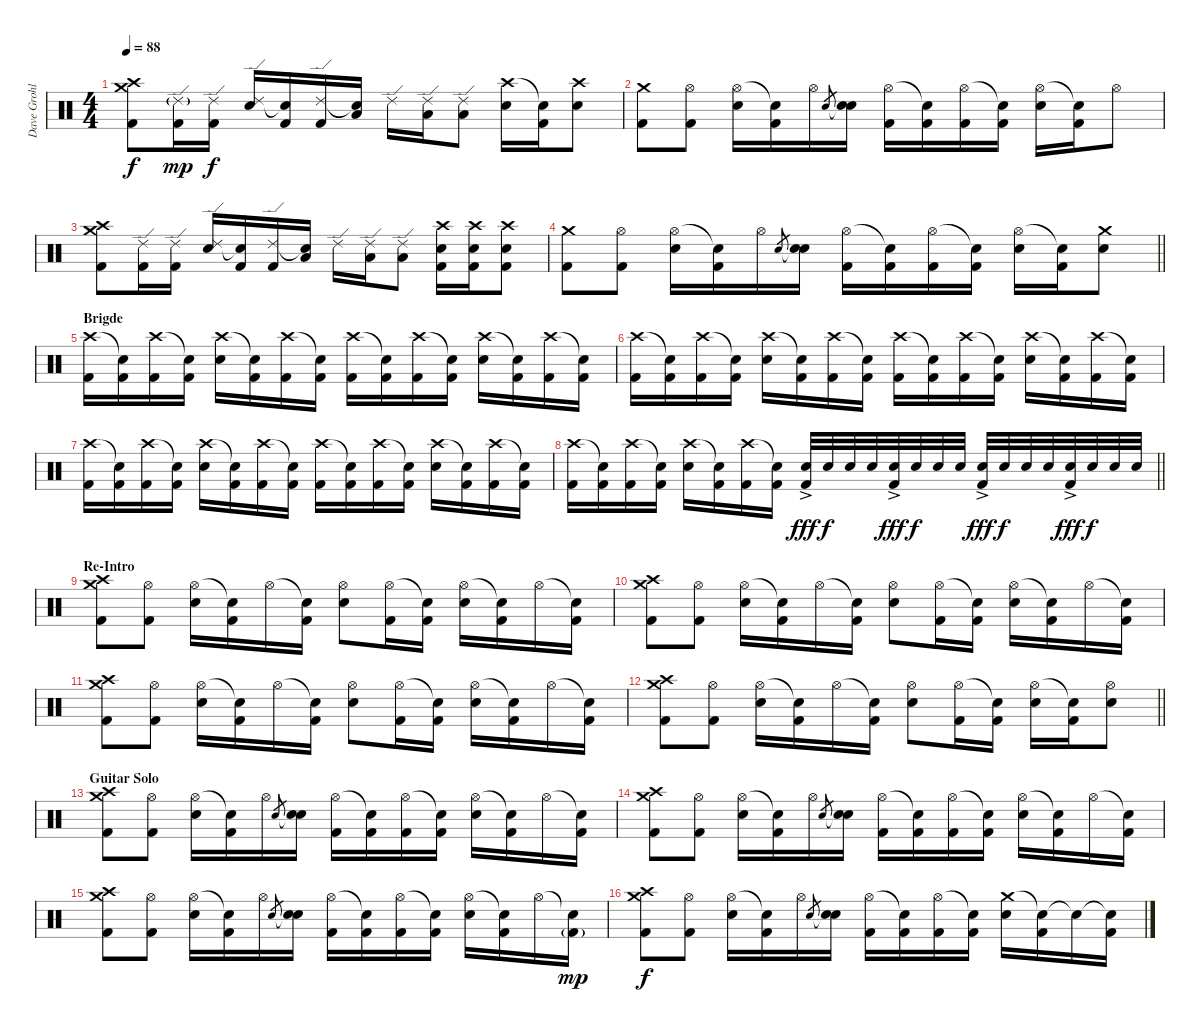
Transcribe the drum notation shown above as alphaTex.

\track ("Dave Grohl - Drums" "Dave Grohl") {instrument percussion}
\staff {score}
\articulation defaults
\ts (4 4)
\tempo 88
\clef neutral
\ks c
("Crash high (hit)" "Crash medium (hit)" "Kick (hit) 2").8{dy f} ("Ride (edge) 2"{g} "Kick (hit) 2").16{dy mp} ("Ride (edge) 2" "Kick (hit) 2").16{dy f} ("Ride (edge) 2" "Electric Snare (hit)").16 ("Snare (hit)"{t} "Kick (hit) 2").16 ("Ride (edge) 2" "Kick (hit) 2").16 ("Snare (hit)"{t} "Low Tom (hit)").16 "Ride (edge) 2".16 ("Ride (edge) 2" "Low Floor Tom (hit)").16 ("Ride (edge) 2" "Low Floor Tom (hit)").8 ("Crash high (hit)" "Electric Snare (hit)").16 ("Snare (hit)"{t} "Kick (hit) 2").16 ("Crash high (hit)" "Electric Snare (hit)").8 |
("Crash medium (hit)" "Kick (hit) 2").8 ("Hi-Hat (open)" "Kick (hit) 2").8 ("Hi-Hat (open)" "Electric Snare (hit)").16 ("Snare (hit)"{t} "Kick (hit) 2").16 "Hi-Hat (open)".16 "Electric Snare (hit)".8{gr} ("Snare (hit)"{t} "Electric Snare (hit)").16 ("Hi-Hat (open)" "Kick (hit) 2").16 ("Snare (hit)"{t} "Kick (hit) 2").16 ("Hi-Hat (open)" "Kick (hit) 2").16 ("Snare (hit)"{t} "Kick (hit) 2").16 ("Hi-Hat (open)" "Electric Snare (hit)").16 ("Snare (hit)"{t} "Kick (hit) 2").16 "Hi-Hat (open)".8 |
("Crash high (hit)" "Crash medium (hit)" "Kick (hit) 2").8 ("Ride (edge) 2" "Kick (hit) 2").16 ("Ride (edge) 2" "Kick (hit) 2").16 ("Ride (edge) 2" "Electric Snare (hit)").16 ("Snare (hit)"{t} "Kick (hit) 2").16 ("Ride (edge) 2" "Kick (hit) 2").16 ("Snare (hit)"{t} "Low Tom (hit)").16 "Ride (edge) 2".16 ("Ride (edge) 2" "Low Floor Tom (hit)").16 ("Ride (edge) 2" "Low Floor Tom (hit)").8 ("Crash high (hit)" "Electric Snare (hit)" "Kick (hit) 2").16 ("Crash high (hit)" "Electric Snare (hit)" "Kick (hit) 2").16 ("Crash high (hit)" "Electric Snare (hit)" "Kick (hit) 2").8 |
\barLineRight lightlight
("Crash medium (hit)" "Kick (hit) 2").8 ("Hi-Hat (open)" "Kick (hit) 2").8 ("Hi-Hat (open)" "Electric Snare (hit)").16 ("Snare (hit)"{t} "Kick (hit) 2").16 "Hi-Hat (open)".16 "Electric Snare (hit)".8{gr} ("Snare (hit)"{t} "Electric Snare (hit)").16 ("Hi-Hat (open)" "Kick (hit) 2").16 ("Snare (hit)"{t} "Kick (hit) 2").16 ("Hi-Hat (open)" "Kick (hit) 2").16 ("Snare (hit)"{t} "Kick (hit) 2").16 ("Hi-Hat (open)" "Electric Snare (hit)").16 ("Snare (hit)"{t} "Kick (hit) 2").16 ("Crash medium (hit)" "Electric Snare (hit)").8 |
\section ("" "Brigde")
("Crash high (hit)" "Kick (hit) 2").16 ("Snare (hit)"{t} "Kick (hit) 2").16 ("Crash high (hit)" "Kick (hit) 2").16 ("Snare (hit)"{t} "Kick (hit) 2").16 ("Crash high (hit)" "Electric Snare (hit)").16 ("Snare (hit)"{t} "Kick (hit) 2").16 ("Crash high (hit)" "Kick (hit) 2").16 ("Snare (hit)"{t} "Kick (hit) 2").16 ("Crash high (hit)" "Kick (hit) 2").16 ("Snare (hit)"{t} "Kick (hit) 2").16 ("Crash high (hit)" "Kick (hit) 2").16 ("Snare (hit)"{t} "Kick (hit) 2").16 ("Crash high (hit)" "Electric Snare (hit)").16 ("Snare (hit)"{t} "Kick (hit) 2").16 ("Crash high (hit)" "Kick (hit) 2").16 ("Snare (hit)"{t} "Kick (hit) 2").16 |
("Crash high (hit)" "Kick (hit) 2").16 ("Snare (hit)"{t} "Kick (hit) 2").16 ("Crash high (hit)" "Kick (hit) 2").16 ("Snare (hit)"{t} "Kick (hit) 2").16 ("Crash high (hit)" "Electric Snare (hit)").16 ("Snare (hit)"{t} "Kick (hit) 2").16 ("Crash high (hit)" "Kick (hit) 2").16 ("Snare (hit)"{t} "Kick (hit) 2").16 ("Crash high (hit)" "Kick (hit) 2").16 ("Snare (hit)"{t} "Kick (hit) 2").16 ("Crash high (hit)" "Kick (hit) 2").16 ("Snare (hit)"{t} "Kick (hit) 2").16 ("Crash high (hit)" "Electric Snare (hit)").16 ("Snare (hit)"{t} "Kick (hit) 2").16 ("Crash high (hit)" "Kick (hit) 2").16 ("Snare (hit)"{t} "Kick (hit) 2").16 |
("Crash high (hit)" "Kick (hit) 2").16 ("Snare (hit)"{t} "Kick (hit) 2").16 ("Crash high (hit)" "Kick (hit) 2").16 ("Snare (hit)"{t} "Kick (hit) 2").16 ("Crash high (hit)" "Electric Snare (hit)").16 ("Snare (hit)"{t} "Kick (hit) 2").16 ("Crash high (hit)" "Kick (hit) 2").16 ("Snare (hit)"{t} "Kick (hit) 2").16 ("Crash high (hit)" "Kick (hit) 2").16 ("Snare (hit)"{t} "Kick (hit) 2").16 ("Crash high (hit)" "Kick (hit) 2").16 ("Snare (hit)"{t} "Kick (hit) 2").16 ("Crash high (hit)" "Electric Snare (hit)").16 ("Snare (hit)"{t} "Kick (hit) 2").16 ("Crash high (hit)" "Kick (hit) 2").16 ("Snare (hit)"{t} "Kick (hit) 2").16 |
\barLineRight lightlight
("Crash high (hit)" "Kick (hit) 2").16 ("Snare (hit)"{t} "Kick (hit) 2").16 ("Crash high (hit)" "Kick (hit) 2").16 ("Snare (hit)"{t} "Kick (hit) 2").16 ("Crash high (hit)" "Electric Snare (hit)").16 ("Snare (hit)"{t} "Kick (hit) 2").16 ("Crash high (hit)" "Kick (hit) 2").16 ("Snare (hit)"{t} "Kick (hit) 2").16 ("Electric Snare (hit)"{ac} "Kick (hit) 2").32{dy fff} "Electric Snare (hit)".32{dy f} "Electric Snare (hit)".32 "Electric Snare (hit)".32 ("Electric Snare (hit)"{ac} "Kick (hit) 2").32{dy fff} "Electric Snare (hit)".32{dy f} "Electric Snare (hit)".32 "Electric Snare (hit)".32 ("Electric Snare (hit)"{ac} "Kick (hit) 2").32{dy fff} "Electric Snare (hit)".32{dy f} "Electric Snare (hit)".32 "Electric Snare (hit)".32 ("Electric Snare (hit)"{ac} "Kick (hit) 2").32{dy fff} "Electric Snare (hit)".32{dy f} "Electric Snare (hit)".32 "Electric Snare (hit)".32 |
\section ("" "Re-Intro")
("Crash high (hit)" "Crash medium (hit)" "Kick (hit) 2").8 ("Hi-Hat (open)" "Kick (hit) 2").8 ("Hi-Hat (open)" "Electric Snare (hit)").16 ("Snare (hit)"{t} "Kick (hit) 2").16 "Hi-Hat (open)".16 ("Snare (hit)"{t} "Kick (hit) 2").16 ("Hi-Hat (open)" "Electric Snare (hit)").8 ("Hi-Hat (open)" "Kick (hit) 2").16 ("Snare (hit)"{t} "Kick (hit) 2").16 ("Hi-Hat (open)" "Electric Snare (hit)").16 ("Snare (hit)"{t} "Kick (hit) 2").16 "Hi-Hat (open)".16 ("Snare (hit)"{t} "Kick (hit) 2").16 |
("Crash high (hit)" "Crash medium (hit)" "Kick (hit) 2").8 ("Hi-Hat (open)" "Kick (hit) 2").8 ("Hi-Hat (open)" "Electric Snare (hit)").16 ("Snare (hit)"{t} "Kick (hit) 2").16 "Hi-Hat (open)".16 ("Snare (hit)"{t} "Kick (hit) 2").16 ("Hi-Hat (open)" "Electric Snare (hit)").8 ("Hi-Hat (open)" "Kick (hit) 2").16 ("Snare (hit)"{t} "Kick (hit) 2").16 ("Hi-Hat (open)" "Electric Snare (hit)").16 ("Snare (hit)"{t} "Kick (hit) 2").16 "Hi-Hat (open)".16 ("Snare (hit)"{t} "Kick (hit) 2").16 |
("Crash high (hit)" "Crash medium (hit)" "Kick (hit) 2").8 ("Hi-Hat (open)" "Kick (hit) 2").8 ("Hi-Hat (open)" "Electric Snare (hit)").16 ("Snare (hit)"{t} "Kick (hit) 2").16 "Hi-Hat (open)".16 ("Snare (hit)"{t} "Kick (hit) 2").16 ("Hi-Hat (open)" "Electric Snare (hit)").8 ("Hi-Hat (open)" "Kick (hit) 2").16 ("Snare (hit)"{t} "Kick (hit) 2").16 ("Hi-Hat (open)" "Electric Snare (hit)").16 ("Snare (hit)"{t} "Kick (hit) 2").16 "Hi-Hat (open)".16 ("Snare (hit)"{t} "Kick (hit) 2").16 |
\barLineRight lightlight
("Crash high (hit)" "Crash medium (hit)" "Kick (hit) 2").8 ("Hi-Hat (open)" "Kick (hit) 2").8 ("Hi-Hat (open)" "Electric Snare (hit)").16 ("Snare (hit)"{t} "Kick (hit) 2").16 "Hi-Hat (open)".16 ("Snare (hit)"{t} "Kick (hit) 2").16 ("Hi-Hat (open)" "Electric Snare (hit)").8 ("Hi-Hat (open)" "Kick (hit) 2").16 ("Snare (hit)"{t} "Kick (hit) 2").16 ("Hi-Hat (open)" "Electric Snare (hit)").16 ("Snare (hit)"{t} "Kick (hit) 2").16 ("Hi-Hat (open)" "Electric Snare (hit)").8 |
\section ("" "Guitar Solo")
("Crash high (hit)" "Crash medium (hit)" "Kick (hit) 2").8 ("Hi-Hat (open)" "Kick (hit) 2").8 ("Hi-Hat (open)" "Electric Snare (hit)").16 ("Snare (hit)"{t} "Kick (hit) 2").16 "Hi-Hat (open)".16 "Electric Snare (hit)".8{gr} ("Snare (hit)"{t} "Electric Snare (hit)").16 ("Hi-Hat (open)" "Kick (hit) 2").16 ("Snare (hit)"{t} "Kick (hit) 2").16 ("Hi-Hat (open)" "Kick (hit) 2").16 ("Snare (hit)"{t} "Kick (hit) 2").16 ("Hi-Hat (open)" "Electric Snare (hit)").16 ("Snare (hit)"{t} "Kick (hit) 2").16 "Hi-Hat (open)".16 ("Snare (hit)"{t} "Kick (hit) 2").16 |
("Crash high (hit)" "Crash medium (hit)" "Kick (hit) 2").8 ("Hi-Hat (open)" "Kick (hit) 2").8 ("Hi-Hat (open)" "Electric Snare (hit)").16 ("Snare (hit)"{t} "Kick (hit) 2").16 "Hi-Hat (open)".16 "Electric Snare (hit)".8{gr} ("Snare (hit)"{t} "Electric Snare (hit)").16 ("Hi-Hat (open)" "Kick (hit) 2").16 ("Snare (hit)"{t} "Kick (hit) 2").16 ("Hi-Hat (open)" "Kick (hit) 2").16 ("Snare (hit)"{t} "Kick (hit) 2").16 ("Hi-Hat (open)" "Electric Snare (hit)").16 ("Snare (hit)"{t} "Kick (hit) 2").16 "Hi-Hat (open)".16 ("Snare (hit)"{t} "Kick (hit) 2").16 |
("Crash high (hit)" "Crash medium (hit)" "Kick (hit) 2").8 ("Hi-Hat (open)" "Kick (hit) 2").8 ("Hi-Hat (open)" "Electric Snare (hit)").16 ("Snare (hit)"{t} "Kick (hit) 2").16 "Hi-Hat (open)".16 "Electric Snare (hit)".8{gr} ("Snare (hit)"{t} "Electric Snare (hit)").16 ("Hi-Hat (open)" "Kick (hit) 2").16 ("Snare (hit)"{t} "Kick (hit) 2").16 ("Hi-Hat (open)" "Kick (hit) 2").16 ("Snare (hit)"{t} "Kick (hit) 2").16 ("Hi-Hat (open)" "Electric Snare (hit)").16 ("Snare (hit)"{t} "Kick (hit) 2").16 "Hi-Hat (open)".16 ("Snare (hit)"{t} "Kick (hit) 2"{g}).16{dy mp} |
("Crash high (hit)" "Crash medium (hit)" "Kick (hit) 2").8{dy f} ("Hi-Hat (open)" "Kick (hit) 2").8 ("Hi-Hat (open)" "Electric Snare (hit)").16 ("Snare (hit)"{t} "Kick (hit) 2").16 "Hi-Hat (open)".16 "Electric Snare (hit)".8{gr} ("Snare (hit)"{t} "Electric Snare (hit)").16 ("Hi-Hat (open)" "Kick (hit) 2").16 ("Snare (hit)"{t} "Kick (hit) 2").16 ("Hi-Hat (open)" "Kick (hit) 2").16 ("Snare (hit)"{t} "Kick (hit) 2").16 ("Crash medium (hit)" "Electric Snare (hit)").16 ("Snare (hit)"{t} "Kick (hit) 2").16 "Snare (hit)"{t}.16 ("Snare (hit)"{t} "Kick (hit) 2").16
